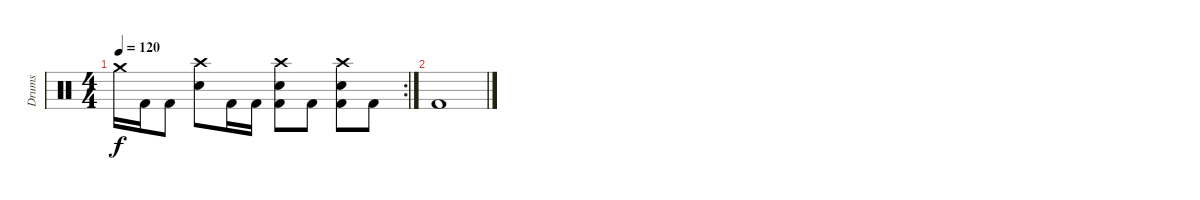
\track ("Drums" "Drums") {instrument percussion}
\staff {score}
\articulation defaults
\rc 2
\ts (4 4)
\tempo 120
\clef neutral
\ks c "Crash medium (hit)".16{dy f} "Kick (hit) 2".16 "Kick (hit) 2".8
("Snare (hit) 2" "Crash high (hit)").8 "Kick (hit) 2".16 "Kick (hit) 2".16 ("Kick (hit) 2" "Snare (hit) 2" "Crash high (hit)").8 "Kick (hit) 2".8 ("Kick (hit) 2" "Snare (hit) 2" "Crash high (hit)").8 "Kick (hit) 2".8 |
"Kick (hit) 2".1
